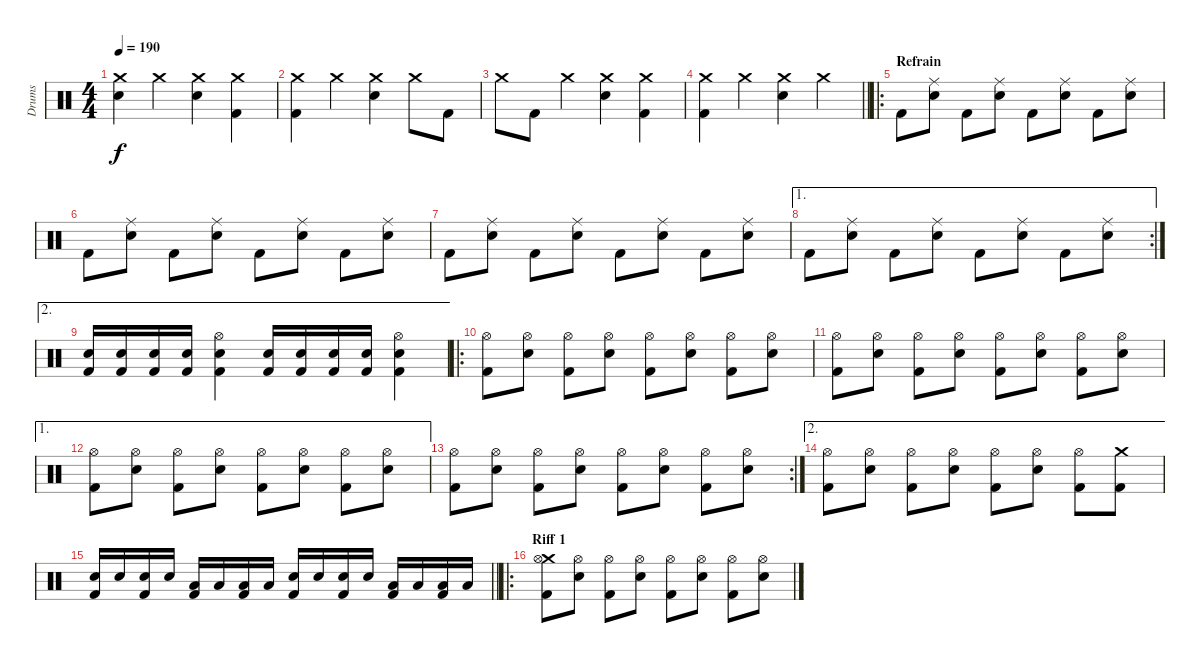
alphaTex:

\track ("Drums" "Drums") {instrument percussion}
\staff {score}
\articulation defaults
\ts (4 4)
\tempo 190
\clef neutral
\ks c
("Crash medium (hit)" "Snare (hit)"{t}).4{dy f} "Crash medium (hit)".4 ("Crash medium (hit)" "Snare (hit) 2").4 ("Crash medium (hit)" "Kick (hit) 2").4 |
("Crash medium (hit)" "Kick (hit) 2").4 "Crash medium (hit)".4 ("Crash medium (hit)" "Snare (hit) 2").4 "Crash medium (hit)".8 "Kick (hit) 2".8 |
"Crash medium (hit)".8 "Kick (hit) 2".8 "Crash medium (hit)".4 ("Crash medium (hit)" "Snare (hit) 2").4 ("Crash medium (hit)" "Kick (hit) 2").4 |
\barLineRight lightlight
("Crash medium (hit)" "Kick (hit) 2").4 "Crash medium (hit)".4 ("Crash medium (hit)" "Snare (hit) 2").4 "Crash medium (hit)".4 |
\ro
\section ("" "Refrain")
"Kick (hit) 2".8 ("Ride (middle)" "Snare (hit) 2").8 "Kick (hit) 2".8 ("Ride (middle)" "Snare (hit) 2").8 "Kick (hit) 2".8 ("Ride (middle)" "Snare (hit) 2").8 "Kick (hit) 2".8 ("Ride (middle)" "Snare (hit) 2").8 |
"Kick (hit) 2".8 ("Ride (middle)" "Snare (hit) 2").8 "Kick (hit) 2".8 ("Ride (middle)" "Snare (hit) 2").8 "Kick (hit) 2".8 ("Ride (middle)" "Snare (hit) 2").8 "Kick (hit) 2".8 ("Ride (middle)" "Snare (hit) 2").8 |
"Kick (hit) 2".8 ("Ride (middle)" "Snare (hit) 2").8 "Kick (hit) 2".8 ("Ride (middle)" "Snare (hit) 2").8 "Kick (hit) 2".8 ("Ride (middle)" "Snare (hit) 2").8 "Kick (hit) 2".8 ("Ride (middle)" "Snare (hit) 2").8 |
\ae 1
\rc 2 "Kick (hit) 2".8
("Ride (middle)" "Snare (hit) 2").8 "Kick (hit) 2".8 ("Ride (middle)" "Snare (hit) 2").8 "Kick (hit) 2".8 ("Ride (middle)" "Snare (hit) 2").8 "Kick (hit) 2".8 ("Ride (middle)" "Snare (hit) 2").8 |
\ae 2
("Snare (hit) 2" "Kick (hit) 2").16 ("Snare (hit) 2" "Kick (hit) 2").16 ("Snare (hit) 2" "Kick (hit) 2").16 ("Snare (hit) 2" "Kick (hit) 2").16 ("Hi-Hat (open)" "Snare (hit) 2" "Kick (hit) 2").4 ("Snare (hit) 2" "Kick (hit) 2").16 ("Snare (hit) 2" "Kick (hit) 2").16 ("Snare (hit) 2" "Kick (hit) 2").16 ("Snare (hit) 2" "Kick (hit) 2").16 ("Hi-Hat (open)" "Snare (hit) 2" "Kick (hit) 2").4 |
\ro
("Hi-Hat (open)" "Kick (hit) 2").8 ("Hi-Hat (open)" "Snare (hit) 2").8 ("Hi-Hat (open)" "Kick (hit) 2").8 ("Hi-Hat (open)" "Snare (hit) 2").8 ("Hi-Hat (open)" "Kick (hit) 2").8 ("Hi-Hat (open)" "Snare (hit) 2").8 ("Hi-Hat (open)" "Kick (hit) 2").8 ("Hi-Hat (open)" "Snare (hit) 2").8 |
("Hi-Hat (open)" "Kick (hit) 2").8 ("Hi-Hat (open)" "Snare (hit) 2").8 ("Hi-Hat (open)" "Kick (hit) 2").8 ("Hi-Hat (open)" "Snare (hit) 2").8 ("Hi-Hat (open)" "Kick (hit) 2").8 ("Hi-Hat (open)" "Snare (hit) 2").8 ("Hi-Hat (open)" "Kick (hit) 2").8 ("Hi-Hat (open)" "Snare (hit) 2").8 |
\ae 1
("Hi-Hat (open)" "Kick (hit) 2").8 ("Hi-Hat (open)" "Snare (hit) 2").8 ("Hi-Hat (open)" "Kick (hit) 2").8 ("Hi-Hat (open)" "Snare (hit) 2").8 ("Hi-Hat (open)" "Kick (hit) 2").8 ("Hi-Hat (open)" "Snare (hit) 2").8 ("Hi-Hat (open)" "Kick (hit) 2").8 ("Hi-Hat (open)" "Snare (hit) 2").8 |
\rc 2
("Hi-Hat (open)" "Kick (hit) 2").8 ("Hi-Hat (open)" "Snare (hit) 2").8 ("Hi-Hat (open)" "Kick (hit) 2").8 ("Hi-Hat (open)" "Snare (hit) 2").8 ("Hi-Hat (open)" "Kick (hit) 2").8 ("Hi-Hat (open)" "Snare (hit) 2").8 ("Hi-Hat (open)" "Kick (hit) 2").8 ("Hi-Hat (open)" "Snare (hit) 2").8 |
\ae 2
("Hi-Hat (open)" "Kick (hit) 2").8 ("Hi-Hat (open)" "Snare (hit) 2").8 ("Hi-Hat (open)" "Kick (hit) 2").8 ("Hi-Hat (open)" "Snare (hit) 2").8 ("Hi-Hat (open)" "Kick (hit) 2").8 ("Hi-Hat (open)" "Snare (hit) 2").8 ("Hi-Hat (open)" "Kick (hit) 2").8 ("Crash medium (hit)" "Kick (hit) 2").8 |
\barLineRight lightlight
("Snare (hit) 2" "Kick (hit) 2").16 "Snare (hit) 2".16 ("Snare (hit) 2" "Kick (hit) 2").16 "Snare (hit) 2".16 ("Low Tom (hit)" "Kick (hit) 2").16 "Low Tom (hit)".16 ("Low Tom (hit)" "Kick (hit) 2").16 "Low Tom (hit)".16 ("Snare (hit) 2" "Kick (hit) 2").16 "Snare (hit) 2".16 ("Snare (hit) 2" "Kick (hit) 2").16 "Snare (hit) 2".16 ("Low Tom (hit)" "Kick (hit) 2").16 "Low Tom (hit)".16 ("Low Floor Tom (hit)" "Kick (hit) 2").16 "Low Floor Tom (hit)".16 |
\ro
\section ("" "Riff 1")
("Crash medium (hit)" "Hi-Hat (open)" "Kick (hit) 2").8 ("Hi-Hat (open)" "Snare (hit) 2").8 ("Hi-Hat (open)" "Kick (hit) 2").8 ("Hi-Hat (open)" "Snare (hit) 2").8 ("Hi-Hat (open)" "Kick (hit) 2").8 ("Hi-Hat (open)" "Snare (hit) 2").8 ("Hi-Hat (open)" "Kick (hit) 2").8 ("Hi-Hat (open)" "Snare (hit) 2").8
